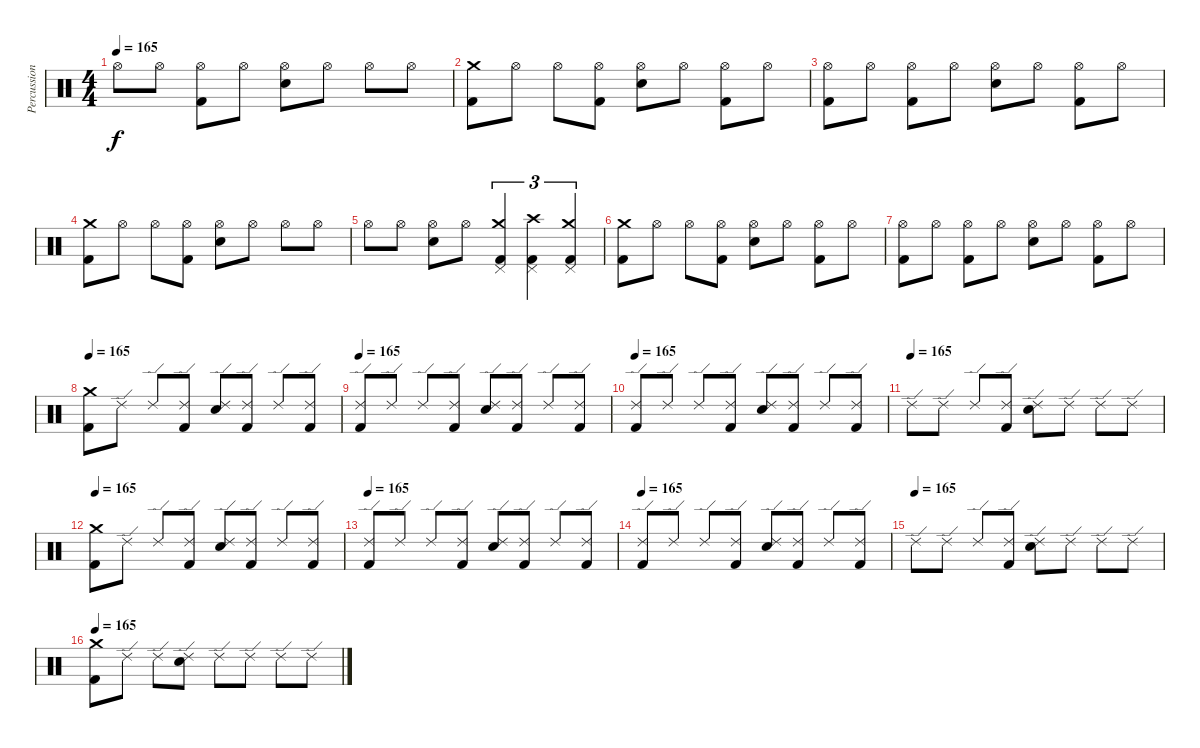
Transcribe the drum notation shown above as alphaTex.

\track ("Percussion" "Percussion") {instrument percussion}
\staff {score}
\articulation defaults
\ts (4 4)
\tempo 165
\clef neutral
\ks c "Hi-Hat (open)".8{dy f} "Hi-Hat (open)".8
("Hi-Hat (open)" "Kick (hit) 2").8 "Hi-Hat (open)".8 ("Hi-Hat (open)" "Electric Snare (hit)").8 "Hi-Hat (open)".8 "Hi-Hat (open)".8 "Hi-Hat (open)".8 |
("Crash medium (hit)" "Kick (hit) 2").8 "Hi-Hat (open)".8 "Hi-Hat (open)".8 ("Hi-Hat (open)" "Kick (hit) 2").8 ("Hi-Hat (open)" "Electric Snare (hit)").8 "Hi-Hat (open)".8 ("Hi-Hat (open)" "Kick (hit) 2").8 "Hi-Hat (open)".8 |
("Hi-Hat (open)" "Kick (hit) 2").8 "Hi-Hat (open)".8 ("Hi-Hat (open)" "Kick (hit) 2").8 "Hi-Hat (open)".8 ("Hi-Hat (open)" "Electric Snare (hit)").8 "Hi-Hat (open)".8 ("Hi-Hat (open)" "Kick (hit) 2").8 "Hi-Hat (open)".8 |
("Crash medium (hit)" "Kick (hit) 2").8 "Hi-Hat (open)".8 "Hi-Hat (open)".8 ("Hi-Hat (open)" "Kick (hit) 2").8 ("Hi-Hat (open)" "Electric Snare (hit)").8 "Hi-Hat (open)".8 "Hi-Hat (open)".8 "Hi-Hat (open)".8 |
"Hi-Hat (open)".8 "Hi-Hat (open)".8 ("Hi-Hat (open)" "Electric Snare (hit)").8 "Hi-Hat (open)".8 ("Crash medium (hit)" "Pedal Hi-Hat (hit)" "Kick (hit) 2").4{tu (3 2)} ("Crash high (hit)" "Pedal Hi-Hat (hit)" "Kick (hit) 2").4{tu (3 2)} ("Crash medium (hit)" "Pedal Hi-Hat (hit)" "Kick (hit) 2").4{tu (3 2)} |
("Crash medium (hit)" "Kick (hit) 2").8 "Hi-Hat (open)".8 "Hi-Hat (open)".8 ("Hi-Hat (open)" "Kick (hit) 2").8 ("Hi-Hat (open)" "Electric Snare (hit)").8 "Hi-Hat (open)".8 ("Hi-Hat (open)" "Kick (hit) 2").8 "Hi-Hat (open)".8 |
("Hi-Hat (open)" "Kick (hit) 2").8 "Hi-Hat (open)".8 ("Hi-Hat (open)" "Kick (hit) 2").8 "Hi-Hat (open)".8 ("Hi-Hat (open)" "Electric Snare (hit)").8 "Hi-Hat (open)".8 ("Hi-Hat (open)" "Kick (hit) 2").8 "Hi-Hat (open)".8 |
\tempo 165
("Crash medium (hit)" "Kick (hit) 2").8 "Ride (edge) 2".8 "Ride (edge) 2".8 ("Ride (edge) 2" "Kick (hit) 2").8 ("Ride (edge) 2" "Electric Snare (hit)").8 ("Ride (edge) 2" "Kick (hit) 2").8 "Ride (edge) 2".8 ("Ride (edge) 2" "Kick (hit) 2").8 |
\tempo 165
("Ride (edge) 2" "Kick (hit) 2").8 "Ride (edge) 2".8 "Ride (edge) 2".8 ("Ride (edge) 2" "Kick (hit) 2").8 ("Ride (edge) 2" "Electric Snare (hit)").8 ("Ride (edge) 2" "Kick (hit) 2").8 "Ride (edge) 2".8 ("Ride (edge) 2" "Kick (hit) 2").8 |
\tempo 165
("Ride (edge) 2" "Kick (hit) 2").8 "Ride (edge) 2".8 "Ride (edge) 2".8 ("Ride (edge) 2" "Kick (hit) 2").8 ("Ride (edge) 2" "Electric Snare (hit)").8 ("Ride (edge) 2" "Kick (hit) 2").8 "Ride (edge) 2".8 ("Ride (edge) 2" "Kick (hit) 2").8 |
\tempo (165)
"Ride (edge) 2".8 "Ride (edge) 2".8 "Ride (edge) 2".8 ("Ride (edge) 2" "Kick (hit) 2").8 ("Ride (edge) 2" "Electric Snare (hit)").8 "Ride (edge) 2".8 "Ride (edge) 2".8 "Ride (edge) 2".8 |
\tempo 165
("Crash medium (hit)" "Kick (hit) 2").8 "Ride (edge) 2".8 "Ride (edge) 2".8 ("Ride (edge) 2" "Kick (hit) 2").8 ("Ride (edge) 2" "Electric Snare (hit)").8 ("Ride (edge) 2" "Kick (hit) 2").8 "Ride (edge) 2".8 ("Ride (edge) 2" "Kick (hit) 2").8 |
\tempo 165
("Ride (edge) 2" "Kick (hit) 2").8 "Ride (edge) 2".8 "Ride (edge) 2".8 ("Ride (edge) 2" "Kick (hit) 2").8 ("Ride (edge) 2" "Electric Snare (hit)").8 ("Ride (edge) 2" "Kick (hit) 2").8 "Ride (edge) 2".8 ("Ride (edge) 2" "Kick (hit) 2").8 |
\tempo 165
("Ride (edge) 2" "Kick (hit) 2").8 "Ride (edge) 2".8 "Ride (edge) 2".8 ("Ride (edge) 2" "Kick (hit) 2").8 ("Ride (edge) 2" "Electric Snare (hit)").8 ("Ride (edge) 2" "Kick (hit) 2").8 "Ride (edge) 2".8 ("Ride (edge) 2" "Kick (hit) 2").8 |
\tempo (165)
"Ride (edge) 2".8 "Ride (edge) 2".8 "Ride (edge) 2".8 ("Ride (edge) 2" "Kick (hit) 2").8 ("Ride (edge) 2" "Electric Snare (hit)").8 "Ride (edge) 2".8 "Ride (edge) 2".8 "Ride (edge) 2".8 |
\tempo 165
("Crash medium (hit)" "Kick (hit) 2").8 "Ride (edge) 2".8 "Ride (edge) 2".8 ("Ride (edge) 2" "Electric Snare (hit)").8 "Ride (edge) 2".8 "Ride (edge) 2".8 "Ride (edge) 2".8 "Ride (edge) 2".8
